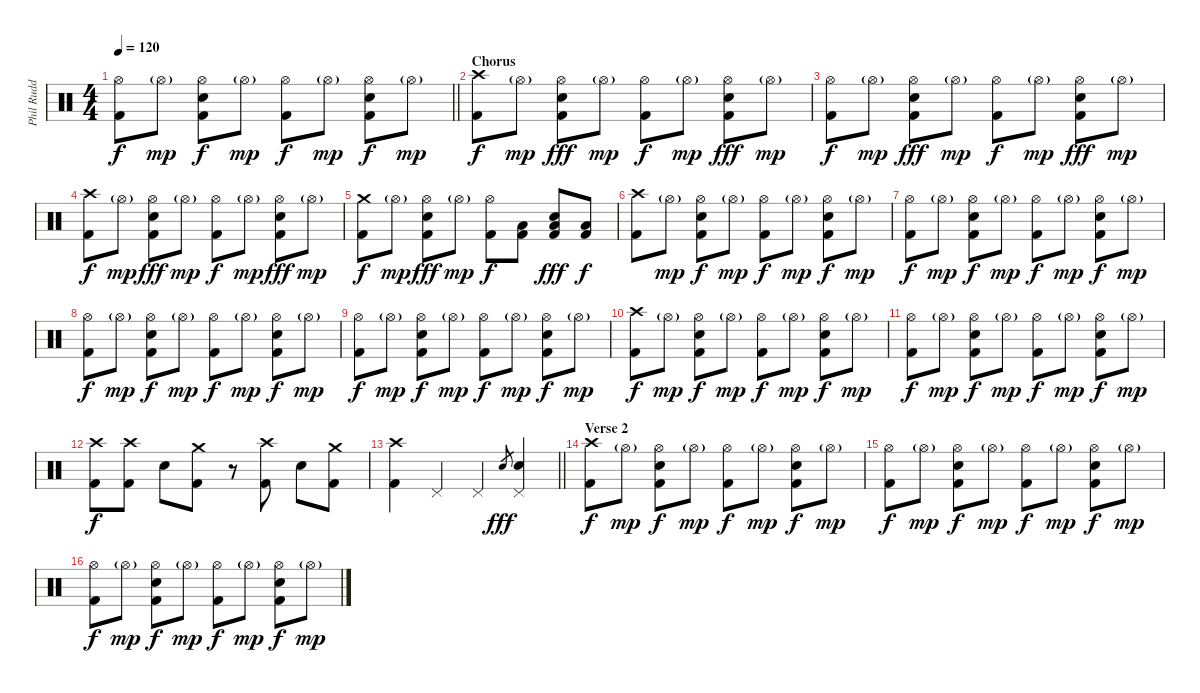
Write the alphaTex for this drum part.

\track ("Phil Rudd" "Phil Rudd") {instrument percussion}
\staff {score}
\articulation defaults
\ts (4 4)
\tempo 120
\clef neutral
\barLineRight lightlight
\ks c
("Hi-Hat (open)" "Kick (hit) 2").8{dy f} "Hi-Hat (open)"{g}.8{dy mp} ("Hi-Hat (open)" "Electric Snare (hit)" "Kick (hit) 2").8{dy f} "Hi-Hat (open)"{g}.8{dy mp} ("Hi-Hat (open)" "Kick (hit) 2").8{dy f} "Hi-Hat (open)"{g}.8{dy mp} ("Hi-Hat (open)" "Electric Snare (hit)" "Kick (hit) 2").8{dy f} "Hi-Hat (open)"{g}.8{dy mp} |
\section ("" "Chorus")
("Crash high (hit)" "Kick (hit) 2").8{dy f} "Hi-Hat (open)"{g}.8{dy mp} ("Hi-Hat (open)" "Electric Snare (hit)" "Kick (hit) 2").8{dy fff} "Hi-Hat (open)"{g}.8{dy mp} ("Hi-Hat (open)" "Kick (hit) 2").8{dy f} "Hi-Hat (open)"{g}.8{dy mp} ("Hi-Hat (open)" "Electric Snare (hit)" "Kick (hit) 2").8{dy fff} "Hi-Hat (open)"{g}.8{dy mp} |
("Hi-Hat (open)" "Kick (hit) 2").8{dy f} "Hi-Hat (open)"{g}.8{dy mp} ("Hi-Hat (open)" "Electric Snare (hit)" "Kick (hit) 2").8{dy fff} "Hi-Hat (open)"{g}.8{dy mp} ("Hi-Hat (open)" "Kick (hit) 2").8{dy f} "Hi-Hat (open)"{g}.8{dy mp} ("Hi-Hat (open)" "Electric Snare (hit)" "Kick (hit) 2").8{dy fff} "Hi-Hat (open)"{g}.8{dy mp} |
("Crash high (hit)" "Kick (hit) 2").8{dy f} "Hi-Hat (open)"{g}.8{dy mp} ("Hi-Hat (open)" "Electric Snare (hit)" "Kick (hit) 2").8{dy fff} "Hi-Hat (open)"{g}.8{dy mp} ("Hi-Hat (open)" "Kick (hit) 2").8{dy f} "Hi-Hat (open)"{g}.8{dy mp} ("Hi-Hat (open)" "Electric Snare (hit)" "Kick (hit) 2").8{dy fff} "Hi-Hat (open)"{g}.8{dy mp} |
("Crash medium (hit)" "Kick (hit) 2").8{dy f} "Hi-Hat (open)"{g}.8{dy mp} ("Hi-Hat (open)" "Electric Snare (hit)" "Kick (hit) 2").8{dy fff} "Hi-Hat (open)"{g}.8{dy mp} ("Hi-Hat (open)" "Kick (hit) 2").8{dy f} ("Low Floor Tom (hit)" "Kick (hit) 2").8 ("Electric Snare (hit)" "Low Floor Tom (hit)" "Kick (hit) 2").8{dy fff} ("Low Floor Tom (hit)" "Kick (hit) 2").8{dy f} |
("Crash high (hit)" "Kick (hit) 2").8 "Hi-Hat (open)"{g}.8{dy mp} ("Hi-Hat (open)" "Electric Snare (hit)" "Kick (hit) 2").8{dy f} "Hi-Hat (open)"{g}.8{dy mp} ("Hi-Hat (open)" "Kick (hit) 2").8{dy f} "Hi-Hat (open)"{g}.8{dy mp} ("Hi-Hat (open)" "Electric Snare (hit)" "Kick (hit) 2").8{dy f} "Hi-Hat (open)"{g}.8{dy mp} |
("Hi-Hat (open)" "Kick (hit) 2").8{dy f} "Hi-Hat (open)"{g}.8{dy mp} ("Hi-Hat (open)" "Electric Snare (hit)" "Kick (hit) 2").8{dy f} "Hi-Hat (open)"{g}.8{dy mp} ("Hi-Hat (open)" "Kick (hit) 2").8{dy f} "Hi-Hat (open)"{g}.8{dy mp} ("Hi-Hat (open)" "Electric Snare (hit)" "Kick (hit) 2").8{dy f} "Hi-Hat (open)"{g}.8{dy mp} |
("Hi-Hat (open)" "Kick (hit) 2").8{dy f} "Hi-Hat (open)"{g}.8{dy mp} ("Hi-Hat (open)" "Electric Snare (hit)" "Kick (hit) 2").8{dy f} "Hi-Hat (open)"{g}.8{dy mp} ("Hi-Hat (open)" "Kick (hit) 2").8{dy f} "Hi-Hat (open)"{g}.8{dy mp} ("Hi-Hat (open)" "Electric Snare (hit)" "Kick (hit) 2").8{dy f} "Hi-Hat (open)"{g}.8{dy mp} |
("Hi-Hat (open)" "Kick (hit) 2").8{dy f} "Hi-Hat (open)"{g}.8{dy mp} ("Hi-Hat (open)" "Electric Snare (hit)" "Kick (hit) 2").8{dy f} "Hi-Hat (open)"{g}.8{dy mp} ("Hi-Hat (open)" "Kick (hit) 2").8{dy f} "Hi-Hat (open)"{g}.8{dy mp} ("Hi-Hat (open)" "Electric Snare (hit)" "Kick (hit) 2").8{dy f} "Hi-Hat (open)"{g}.8{dy mp} |
("Crash high (hit)" "Kick (hit) 2").8{dy f} "Hi-Hat (open)"{g}.8{dy mp} ("Hi-Hat (open)" "Electric Snare (hit)" "Kick (hit) 2").8{dy f} "Hi-Hat (open)"{g}.8{dy mp} ("Hi-Hat (open)" "Kick (hit) 2").8{dy f} "Hi-Hat (open)"{g}.8{dy mp} ("Hi-Hat (open)" "Electric Snare (hit)" "Kick (hit) 2").8{dy f} "Hi-Hat (open)"{g}.8{dy mp} |
("Hi-Hat (open)" "Kick (hit) 2").8{dy f} "Hi-Hat (open)"{g}.8{dy mp} ("Hi-Hat (open)" "Electric Snare (hit)" "Kick (hit) 2").8{dy f} "Hi-Hat (open)"{g}.8{dy mp} ("Hi-Hat (open)" "Kick (hit) 2").8{dy f} "Hi-Hat (open)"{g}.8{dy mp} ("Hi-Hat (open)" "Electric Snare (hit)" "Kick (hit) 2").8{dy f} "Hi-Hat (open)"{g}.8{dy mp} |
("Crash high (hit)" "Kick (hit) 2").8{dy f} ("Crash high (hit)" "Kick (hit) 2").8 "Electric Snare (hit)".8 ("Crash medium (hit)" "Kick (hit) 2").8 r.8 ("Crash high (hit)" "Kick (hit) 2").8 "Electric Snare (hit)".8 ("Crash medium (hit)" "Kick (hit) 2").8 |
\barLineRight lightlight
("Crash high (hit)" "Kick (hit) 2").4 "Pedal Hi-Hat (hit)".4 "Pedal Hi-Hat (hit)".4 "Electric Snare (hit)".8{gr dy fff} ("Electric Snare (hit)" "Pedal Hi-Hat (hit)").4 |
\section ("" "Verse 2")
("Crash high (hit)" "Kick (hit) 2").8{dy f} "Hi-Hat (open)"{g}.8{dy mp} ("Hi-Hat (open)" "Electric Snare (hit)" "Kick (hit) 2").8{dy f} "Hi-Hat (open)"{g}.8{dy mp} ("Hi-Hat (open)" "Kick (hit) 2").8{dy f} "Hi-Hat (open)"{g}.8{dy mp} ("Hi-Hat (open)" "Electric Snare (hit)" "Kick (hit) 2").8{dy f} "Hi-Hat (open)"{g}.8{dy mp} |
("Hi-Hat (open)" "Kick (hit) 2").8{dy f} "Hi-Hat (open)"{g}.8{dy mp} ("Hi-Hat (open)" "Electric Snare (hit)" "Kick (hit) 2").8{dy f} "Hi-Hat (open)"{g}.8{dy mp} ("Hi-Hat (open)" "Kick (hit) 2").8{dy f} "Hi-Hat (open)"{g}.8{dy mp} ("Hi-Hat (open)" "Electric Snare (hit)" "Kick (hit) 2").8{dy f} "Hi-Hat (open)"{g}.8{dy mp} |
("Hi-Hat (open)" "Kick (hit) 2").8{dy f} "Hi-Hat (open)"{g}.8{dy mp} ("Hi-Hat (open)" "Electric Snare (hit)" "Kick (hit) 2").8{dy f} "Hi-Hat (open)"{g}.8{dy mp} ("Hi-Hat (open)" "Kick (hit) 2").8{dy f} "Hi-Hat (open)"{g}.8{dy mp} ("Hi-Hat (open)" "Electric Snare (hit)" "Kick (hit) 2").8{dy f} "Hi-Hat (open)"{g}.8{dy mp}
